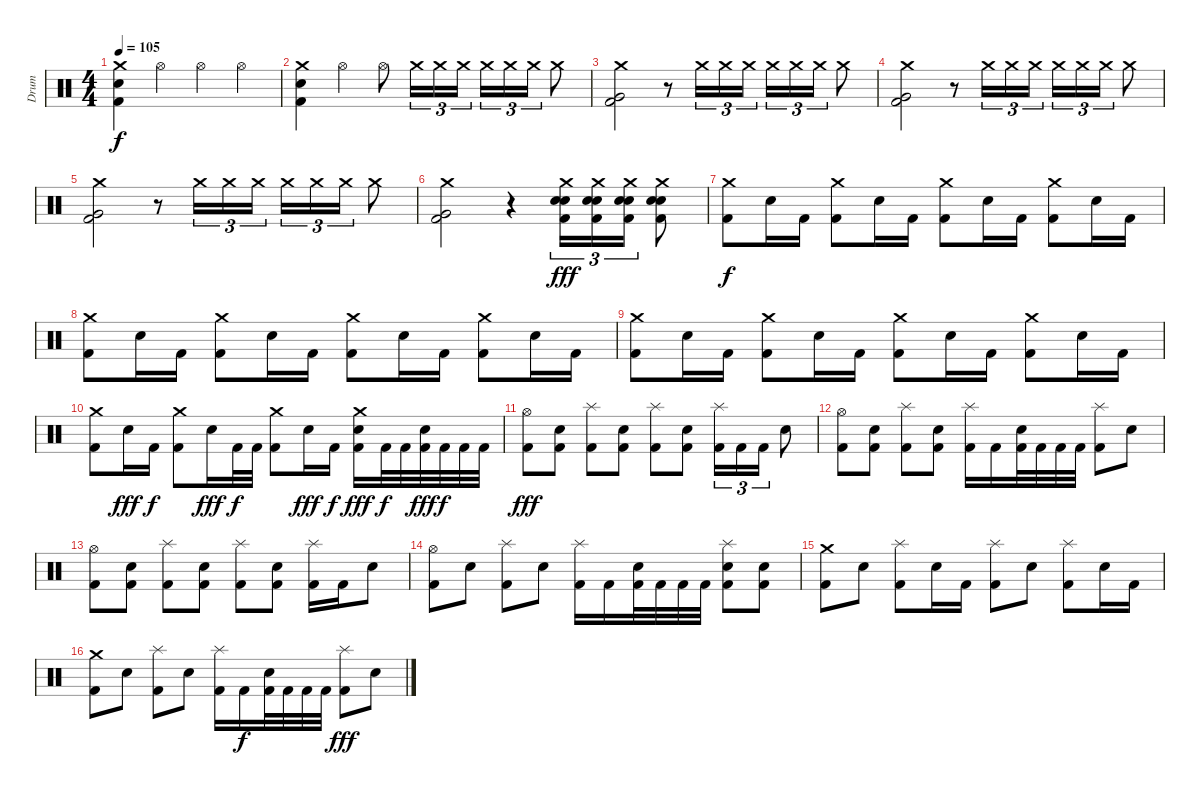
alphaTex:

\track ("Drum" "Drum") {instrument percussion}
\staff {score}
\articulation defaults
\ts (4 4)
\tempo 105
\clef neutral
\ks c
("Crash medium (hit)" "Snare (hit) 2" "Kick (hit) 2").4{dy f} "Hi-Hat (open)".4 "Hi-Hat (open)".4 "Hi-Hat (open)".4 |
("Crash medium (hit)" "Snare (hit) 2" "Kick (hit) 2").4 "Hi-Hat (open)".4 "Hi-Hat (open)".8 "Crash medium (hit)".16{tu (3 2)} "Crash medium (hit)".16{tu (3 2)} "Crash medium (hit)".16{tu (3 2)} "Crash medium (hit)".16{tu (3 2)} "Crash medium (hit)".16{tu (3 2)} "Crash medium (hit)".16{tu (3 2)} "Crash medium (hit)".8 |
("Crash medium (hit)" "Very Low Tom (hit)" "Kick (hit) 2").2 r.8 "Crash medium (hit)".16{tu (3 2)} "Crash medium (hit)".16{tu (3 2)} "Crash medium (hit)".16{tu (3 2)} "Crash medium (hit)".16{tu (3 2)} "Crash medium (hit)".16{tu (3 2)} "Crash medium (hit)".16{tu (3 2)} "Crash medium (hit)".8 |
("Crash medium (hit)" "Very Low Tom (hit)" "Kick (hit) 2").2 r.8 "Crash medium (hit)".16{tu (3 2)} "Crash medium (hit)".16{tu (3 2)} "Crash medium (hit)".16{tu (3 2)} "Crash medium (hit)".16{tu (3 2)} "Crash medium (hit)".16{tu (3 2)} "Crash medium (hit)".16{tu (3 2)} "Crash medium (hit)".8 |
("Crash medium (hit)" "Very Low Tom (hit)" "Kick (hit) 2").2 r.8 "Crash medium (hit)".16{tu (3 2)} "Crash medium (hit)".16{tu (3 2)} "Crash medium (hit)".16{tu (3 2)} "Crash medium (hit)".16{tu (3 2)} "Crash medium (hit)".16{tu (3 2)} "Crash medium (hit)".16{tu (3 2)} "Crash medium (hit)".8 |
("Crash medium (hit)" "Very Low Tom (hit)" "Kick (hit) 2").2 r.4 ("Crash medium (hit)" "Electric Snare (hit)" "Snare (hit) 2" "Kick (hit) 2").16{tu (3 2) dy fff} ("Crash medium (hit)" "Electric Snare (hit)" "Snare (hit) 2" "Kick (hit) 2").16{tu (3 2)} ("Crash medium (hit)" "Electric Snare (hit)" "Snare (hit) 2" "Kick (hit) 2").16{tu (3 2)} ("Crash medium (hit)" "Electric Snare (hit)" "Snare (hit) 2" "Kick (hit) 2").8 |
("Crash medium (hit)" "Kick (hit) 2").8{dy f} "Electric Snare (hit)".16 "Kick (hit) 2".16 ("Crash medium (hit)" "Kick (hit) 2").8 "Electric Snare (hit)".16 "Kick (hit) 2".16 ("Crash medium (hit)" "Kick (hit) 2").8 "Electric Snare (hit)".16 "Kick (hit) 2".16 ("Crash medium (hit)" "Kick (hit) 2").8 "Electric Snare (hit)".16 "Kick (hit) 2".16 |
("Crash medium (hit)" "Kick (hit) 2").8 "Electric Snare (hit)".16 "Kick (hit) 2".16 ("Crash medium (hit)" "Kick (hit) 2").8 "Electric Snare (hit)".16 "Kick (hit) 2".16 ("Crash medium (hit)" "Kick (hit) 2").8 "Electric Snare (hit)".16 "Kick (hit) 2".16 ("Crash medium (hit)" "Kick (hit) 2").8 "Electric Snare (hit)".16 "Kick (hit) 2".16 |
("Crash medium (hit)" "Kick (hit) 2").8 "Electric Snare (hit)".16 "Kick (hit) 2".16 ("Crash medium (hit)" "Kick (hit) 2").8 "Electric Snare (hit)".16 "Kick (hit) 2".16 ("Crash medium (hit)" "Kick (hit) 2").8 "Electric Snare (hit)".16 "Kick (hit) 2".16 ("Crash medium (hit)" "Kick (hit) 2").8 "Electric Snare (hit)".16 "Kick (hit) 2".16 |
("Crash medium (hit)" "Kick (hit) 2").8 "Electric Snare (hit)".16{dy fff} "Kick (hit) 2".16{dy f} ("Crash medium (hit)" "Kick (hit) 2").8 "Electric Snare (hit)".16{dy fff} "Kick (hit) 2".32{dy f} "Kick (hit) 2".32 ("Crash medium (hit)" "Kick (hit) 2").8 "Electric Snare (hit)".16{dy fff} "Kick (hit) 2".16{dy f} ("Crash medium (hit)" "Electric Snare (hit)" "Kick (hit) 2").16{dy fff} "Kick (hit) 2".32{dy f} "Kick (hit) 2".32 ("Electric Snare (hit)" "Kick (hit) 2").32{dy fff} "Kick (hit) 2".32{dy f} "Kick (hit) 2".32 "Kick (hit) 2".32 |
("Hi-Hat (open)" "Kick (hit) 2").8{dy fff} ("Electric Snare (hit)" "Kick (hit) 2").8 ("Splash (hit)" "Kick (hit) 2").8 ("Electric Snare (hit)" "Kick (hit) 2").8 ("Splash (hit)" "Kick (hit) 2").8 ("Electric Snare (hit)" "Kick (hit) 2").8 ("Splash (hit)" "Kick (hit) 2").16{tu (3 2)} "Kick (hit) 2".16{tu (3 2)} "Kick (hit) 2".16{tu (3 2)} "Electric Snare (hit)".8 |
("Hi-Hat (open)" "Kick (hit) 2").8 ("Electric Snare (hit)" "Kick (hit) 2").8 ("Splash (hit)" "Kick (hit) 2").8 ("Electric Snare (hit)" "Kick (hit) 2").8 ("Splash (hit)" "Kick (hit) 2").16 "Kick (hit) 2".16 ("Electric Snare (hit)" "Kick (hit) 2").32 "Kick (hit) 2".32 "Kick (hit) 2".32 "Kick (hit) 2".32 ("Splash (hit)" "Kick (hit) 2").8 "Electric Snare (hit)".8 |
("Hi-Hat (open)" "Kick (hit) 2").8 ("Electric Snare (hit)" "Kick (hit) 2").8 ("Splash (hit)" "Kick (hit) 2").8 ("Electric Snare (hit)" "Kick (hit) 2").8 ("Splash (hit)" "Kick (hit) 2").8 ("Electric Snare (hit)" "Kick (hit) 2").8 ("Splash (hit)" "Kick (hit) 2").16 "Kick (hit) 2".16 "Electric Snare (hit)".8 |
("Hi-Hat (open)" "Kick (hit) 2").8 "Electric Snare (hit)".8 ("Splash (hit)" "Kick (hit) 2").8 "Electric Snare (hit)".8 ("Splash (hit)" "Kick (hit) 2").16 "Kick (hit) 2".16 ("Electric Snare (hit)" "Kick (hit) 2").32 "Kick (hit) 2".32 "Kick (hit) 2".32 "Kick (hit) 2".32 ("Splash (hit)" "Electric Snare (hit)" "Kick (hit) 2").8 ("Electric Snare (hit)" "Kick (hit) 2").8 |
("Crash medium (hit)" "Kick (hit) 2").8 "Electric Snare (hit)".8 ("Splash (hit)" "Kick (hit) 2").8 "Electric Snare (hit)".16 "Kick (hit) 2".16 ("Splash (hit)" "Kick (hit) 2").8 "Electric Snare (hit)".8 ("Splash (hit)" "Kick (hit) 2").8 "Electric Snare (hit)".16 "Kick (hit) 2".16 |
("Crash medium (hit)" "Kick (hit) 2").8 "Electric Snare (hit)".8 ("Splash (hit)" "Kick (hit) 2").8 "Electric Snare (hit)".8 ("Splash (hit)" "Kick (hit) 2").16 "Kick (hit) 2".16{dy f} ("Electric Snare (hit)" "Kick (hit) 2").32 "Kick (hit) 2".32 "Kick (hit) 2".32 "Kick (hit) 2".32 ("Splash (hit)" "Kick (hit) 2").8{dy fff} "Electric Snare (hit)".8
